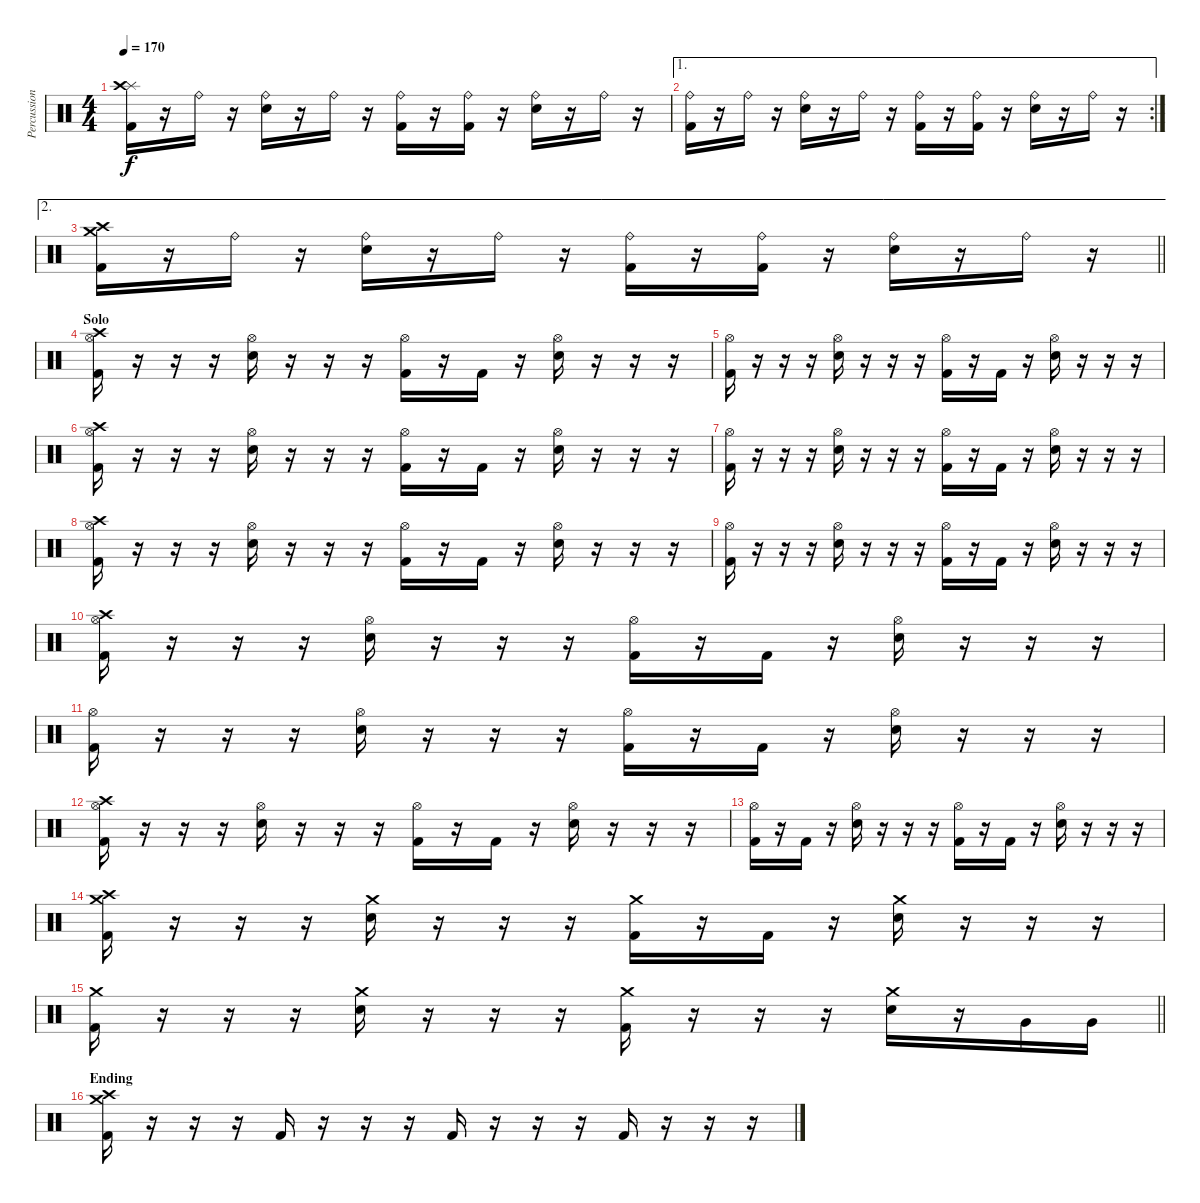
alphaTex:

\track ("Percussion" "Percussion") {instrument percussion}
\staff {score}
\articulation defaults
\ts (4 4)
\tempo 170
\clef neutral
\ks c
("Splash (hit)" "Crash high (hit)" "Kick (hit) 2").16{dy f} r.16 "Ride (bell)".16 r.16 ("Ride (bell)" "Electric Snare (hit)").16 r.16 "Ride (bell)".16 r.16 ("Ride (bell)" "Kick (hit) 2").16 r.16 ("Ride (bell)" "Kick (hit) 2").16 r.16 ("Ride (bell)" "Electric Snare (hit)").16 r.16 "Ride (bell)".16 r.16 |
\ae 1
\rc 2
("Ride (bell)" "Kick (hit) 2").16 r.16 "Ride (bell)".16 r.16 ("Ride (bell)" "Electric Snare (hit)").16 r.16 "Ride (bell)".16 r.16 ("Ride (bell)" "Kick (hit) 2").16 r.16 ("Ride (bell)" "Kick (hit) 2").16 r.16 ("Ride (bell)" "Electric Snare (hit)").16 r.16 "Ride (bell)".16 r.16 |
\ae 2
\barLineRight lightlight
("Crash high (hit)" "Crash medium (hit)" "Kick (hit) 2").16 r.16 "Ride (bell)".16 r.16 ("Ride (bell)" "Electric Snare (hit)").16 r.16 "Ride (bell)".16 r.16 ("Ride (bell)" "Kick (hit) 2").16 r.16 ("Ride (bell)" "Kick (hit) 2").16 r.16 ("Ride (bell)" "Electric Snare (hit)").16 r.16 "Ride (bell)".16 r.16 |
\section ("" "Solo")
("Hi-Hat (open)" "Crash high (hit)" "Kick (hit) 2").16 r.16 r.16 r.16 ("Hi-Hat (open)" "Electric Snare (hit)").16 r.16 r.16 r.16 ("Hi-Hat (open)" "Kick (hit) 2").16 r.16 "Kick (hit) 2".16 r.16 ("Hi-Hat (open)" "Electric Snare (hit)").16 r.16 r.16 r.16 |
("Hi-Hat (open)" "Kick (hit) 2").16 r.16 r.16 r.16 ("Hi-Hat (open)" "Electric Snare (hit)").16 r.16 r.16 r.16 ("Hi-Hat (open)" "Kick (hit) 2").16 r.16 "Kick (hit) 2".16 r.16 ("Hi-Hat (open)" "Electric Snare (hit)").16 r.16 r.16 r.16 |
("Hi-Hat (open)" "Crash high (hit)" "Kick (hit) 2").16 r.16 r.16 r.16 ("Hi-Hat (open)" "Electric Snare (hit)").16 r.16 r.16 r.16 ("Hi-Hat (open)" "Kick (hit) 2").16 r.16 "Kick (hit) 2".16 r.16 ("Hi-Hat (open)" "Electric Snare (hit)").16 r.16 r.16 r.16 |
("Hi-Hat (open)" "Kick (hit) 2").16 r.16 r.16 r.16 ("Hi-Hat (open)" "Electric Snare (hit)").16 r.16 r.16 r.16 ("Hi-Hat (open)" "Kick (hit) 2").16 r.16 "Kick (hit) 2".16 r.16 ("Hi-Hat (open)" "Electric Snare (hit)").16 r.16 r.16 r.16 |
("Hi-Hat (open)" "Crash high (hit)" "Kick (hit) 2").16 r.16 r.16 r.16 ("Hi-Hat (open)" "Electric Snare (hit)").16 r.16 r.16 r.16 ("Hi-Hat (open)" "Kick (hit) 2").16 r.16 "Kick (hit) 2".16 r.16 ("Hi-Hat (open)" "Electric Snare (hit)").16 r.16 r.16 r.16 |
("Hi-Hat (open)" "Kick (hit) 2").16 r.16 r.16 r.16 ("Hi-Hat (open)" "Electric Snare (hit)").16 r.16 r.16 r.16 ("Hi-Hat (open)" "Kick (hit) 2").16 r.16 "Kick (hit) 2".16 r.16 ("Hi-Hat (open)" "Electric Snare (hit)").16 r.16 r.16 r.16 |
("Hi-Hat (open)" "Crash high (hit)" "Kick (hit) 2").16 r.16 r.16 r.16 ("Hi-Hat (open)" "Electric Snare (hit)").16 r.16 r.16 r.16 ("Hi-Hat (open)" "Kick (hit) 2").16 r.16 "Kick (hit) 2".16 r.16 ("Hi-Hat (open)" "Electric Snare (hit)").16 r.16 r.16 r.16 |
("Hi-Hat (open)" "Kick (hit) 2").16 r.16 r.16 r.16 ("Hi-Hat (open)" "Electric Snare (hit)").16 r.16 r.16 r.16 ("Hi-Hat (open)" "Kick (hit) 2").16 r.16 "Kick (hit) 2".16 r.16 ("Hi-Hat (open)" "Electric Snare (hit)").16 r.16 r.16 r.16 |
("Hi-Hat (open)" "Crash high (hit)" "Kick (hit) 2").16 r.16 r.16 r.16 ("Hi-Hat (open)" "Electric Snare (hit)").16 r.16 r.16 r.16 ("Hi-Hat (open)" "Kick (hit) 2").16 r.16 "Kick (hit) 2".16 r.16 ("Hi-Hat (open)" "Electric Snare (hit)").16 r.16 r.16 r.16 |
("Hi-Hat (open)" "Kick (hit) 2").16 r.16 "Kick (hit) 2".16 r.16 ("Hi-Hat (open)" "Electric Snare (hit)").16 r.16 r.16 r.16 ("Hi-Hat (open)" "Kick (hit) 2").16 r.16 "Kick (hit) 2".16 r.16 ("Hi-Hat (open)" "Electric Snare (hit)").16 r.16 r.16 r.16 |
("Crash medium (hit)" "Crash high (hit)" "Kick (hit) 2").16 r.16 r.16 r.16 ("Crash medium (hit)" "Electric Snare (hit)").16 r.16 r.16 r.16 ("Crash medium (hit)" "Kick (hit) 2").16 r.16 "Kick (hit) 2".16 r.16 ("Crash medium (hit)" "Electric Snare (hit)").16 r.16 r.16 r.16 |
\barLineRight lightlight
("Crash medium (hit)" "Kick (hit) 2").16 r.16 r.16 r.16 ("Crash medium (hit)" "Electric Snare (hit)").16 r.16 r.16 r.16 ("Crash medium (hit)" "Kick (hit) 2").16 r.16 r.16 r.16 ("Crash medium (hit)" "Electric Snare (hit)").16 r.16 "Very Low Tom (hit)".16 "Very Low Tom (hit)".16 |
\section ("" "Ending")
("Crash high (hit)" "Crash medium (hit)" "Kick (hit) 2").16 r.16 r.16 r.16 "Kick (hit) 2".16 r.16 r.16 r.16 "Kick (hit) 2".16 r.16 r.16 r.16 "Kick (hit) 2".16 r.16 r.16 r.16
